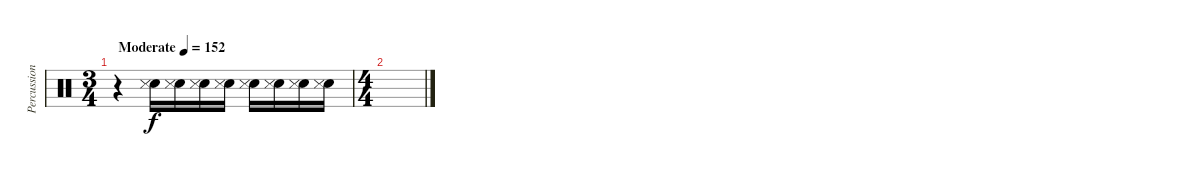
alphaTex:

\track ("Percussion" "Percussion") {instrument percussion}
\staff {score}
\articulation defaults
\ts (3 4)
\tempo (152 "Moderate")
\clef neutral
\ks c
r.4{dy f} ("Electric Snare (hit)" "Snare (side stick) 3").16 ("Electric Snare (hit)" "Snare (side stick) 3").16 ("Electric Snare (hit)" "Snare (side stick) 3").16 ("Electric Snare (hit)" "Snare (side stick) 3").16 ("Electric Snare (hit)" "Snare (side stick) 3").16 ("Electric Snare (hit)" "Snare (side stick) 3").16 ("Electric Snare (hit)" "Snare (side stick) 3").16 ("Electric Snare (hit)" "Snare (side stick) 3").16 |
\ts (4 4)
